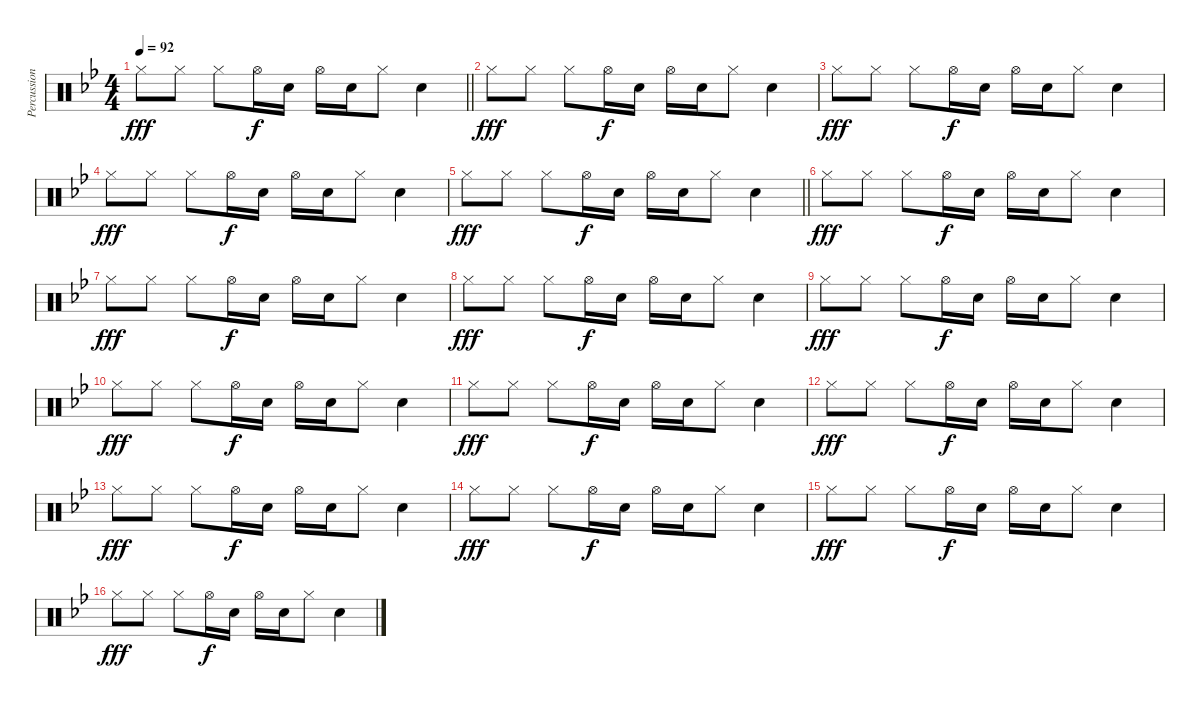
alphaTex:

\track ("Percussion" "Percussion") {instrument percussion}
\staff {score}
\articulation defaults
\ts (4 4)
\tempo 92
\clef neutral
\barLineRight lightlight
\ks bb "Hi-Hat (closed)".8{dy fff} "Hi-Hat (closed)".8 "Hi-Hat (closed)".8 "Hi-Hat (open)".16{dy f} "Snare (hit) 2".16 "Hi-Hat (open)".16 "Snare (hit) 2".16 "Hi-Hat (closed)".8 "Snare (hit) 2".4
|
"Hi-Hat (closed)".8{dy fff} "Hi-Hat (closed)".8 "Hi-Hat (closed)".8 "Hi-Hat (open)".16{dy f} "Snare (hit) 2".16 "Hi-Hat (open)".16 "Snare (hit) 2".16 "Hi-Hat (closed)".8 "Snare (hit) 2".4 |
"Hi-Hat (closed)".8{dy fff} "Hi-Hat (closed)".8 "Hi-Hat (closed)".8 "Hi-Hat (open)".16{dy f} "Snare (hit) 2".16 "Hi-Hat (open)".16 "Snare (hit) 2".16 "Hi-Hat (closed)".8 "Snare (hit) 2".4 |
"Hi-Hat (closed)".8{dy fff} "Hi-Hat (closed)".8 "Hi-Hat (closed)".8 "Hi-Hat (open)".16{dy f} "Snare (hit) 2".16 "Hi-Hat (open)".16 "Snare (hit) 2".16 "Hi-Hat (closed)".8 "Snare (hit) 2".4 |
\barLineRight lightlight "Hi-Hat (closed)".8{dy fff} "Hi-Hat (closed)".8 "Hi-Hat (closed)".8 "Hi-Hat (open)".16{dy f} "Snare (hit) 2".16 "Hi-Hat (open)".16 "Snare (hit) 2".16 "Hi-Hat (closed)".8 "Snare (hit) 2".4
|
"Hi-Hat (closed)".8{dy fff} "Hi-Hat (closed)".8 "Hi-Hat (closed)".8 "Hi-Hat (open)".16{dy f} "Snare (hit) 2".16 "Hi-Hat (open)".16 "Snare (hit) 2".16 "Hi-Hat (closed)".8 "Snare (hit) 2".4 |
"Hi-Hat (closed)".8{dy fff} "Hi-Hat (closed)".8 "Hi-Hat (closed)".8 "Hi-Hat (open)".16{dy f} "Snare (hit) 2".16 "Hi-Hat (open)".16 "Snare (hit) 2".16 "Hi-Hat (closed)".8 "Snare (hit) 2".4 |
"Hi-Hat (closed)".8{dy fff} "Hi-Hat (closed)".8 "Hi-Hat (closed)".8 "Hi-Hat (open)".16{dy f} "Snare (hit) 2".16 "Hi-Hat (open)".16 "Snare (hit) 2".16 "Hi-Hat (closed)".8 "Snare (hit) 2".4 |
"Hi-Hat (closed)".8{dy fff volume 10} "Hi-Hat (closed)".8 "Hi-Hat (closed)".8 "Hi-Hat (open)".16{dy f} "Snare (hit) 2".16 "Hi-Hat (open)".16 "Snare (hit) 2".16 "Hi-Hat (closed)".8 "Snare (hit) 2".4 |
"Hi-Hat (closed)".8{dy fff} "Hi-Hat (closed)".8 "Hi-Hat (closed)".8 "Hi-Hat (open)".16{dy f} "Snare (hit) 2".16 "Hi-Hat (open)".16 "Snare (hit) 2".16 "Hi-Hat (closed)".8 "Snare (hit) 2".4 |
"Hi-Hat (closed)".8{dy fff volume 8} "Hi-Hat (closed)".8 "Hi-Hat (closed)".8 "Hi-Hat (open)".16{dy f} "Snare (hit) 2".16 "Hi-Hat (open)".16 "Snare (hit) 2".16 "Hi-Hat (closed)".8 "Snare (hit) 2".4 |
"Hi-Hat (closed)".8{dy fff} "Hi-Hat (closed)".8 "Hi-Hat (closed)".8 "Hi-Hat (open)".16{dy f} "Snare (hit) 2".16 "Hi-Hat (open)".16 "Snare (hit) 2".16 "Hi-Hat (closed)".8 "Snare (hit) 2".4 |
"Hi-Hat (closed)".8{dy fff volume 6} "Hi-Hat (closed)".8 "Hi-Hat (closed)".8 "Hi-Hat (open)".16{dy f} "Snare (hit) 2".16 "Hi-Hat (open)".16 "Snare (hit) 2".16 "Hi-Hat (closed)".8 "Snare (hit) 2".4 |
"Hi-Hat (closed)".8{dy fff} "Hi-Hat (closed)".8 "Hi-Hat (closed)".8 "Hi-Hat (open)".16{dy f} "Snare (hit) 2".16 "Hi-Hat (open)".16 "Snare (hit) 2".16 "Hi-Hat (closed)".8 "Snare (hit) 2".4 |
"Hi-Hat (closed)".8{dy fff} "Hi-Hat (closed)".8 "Hi-Hat (closed)".8 "Hi-Hat (open)".16{dy f} "Snare (hit) 2".16 "Hi-Hat (open)".16 "Snare (hit) 2".16 "Hi-Hat (closed)".8 "Snare (hit) 2".4 |
"Hi-Hat (closed)".8{dy fff} "Hi-Hat (closed)".8 "Hi-Hat (closed)".8 "Hi-Hat (open)".16{dy f} "Snare (hit) 2".16 "Hi-Hat (open)".16 "Snare (hit) 2".16 "Hi-Hat (closed)".8 "Snare (hit) 2".4
